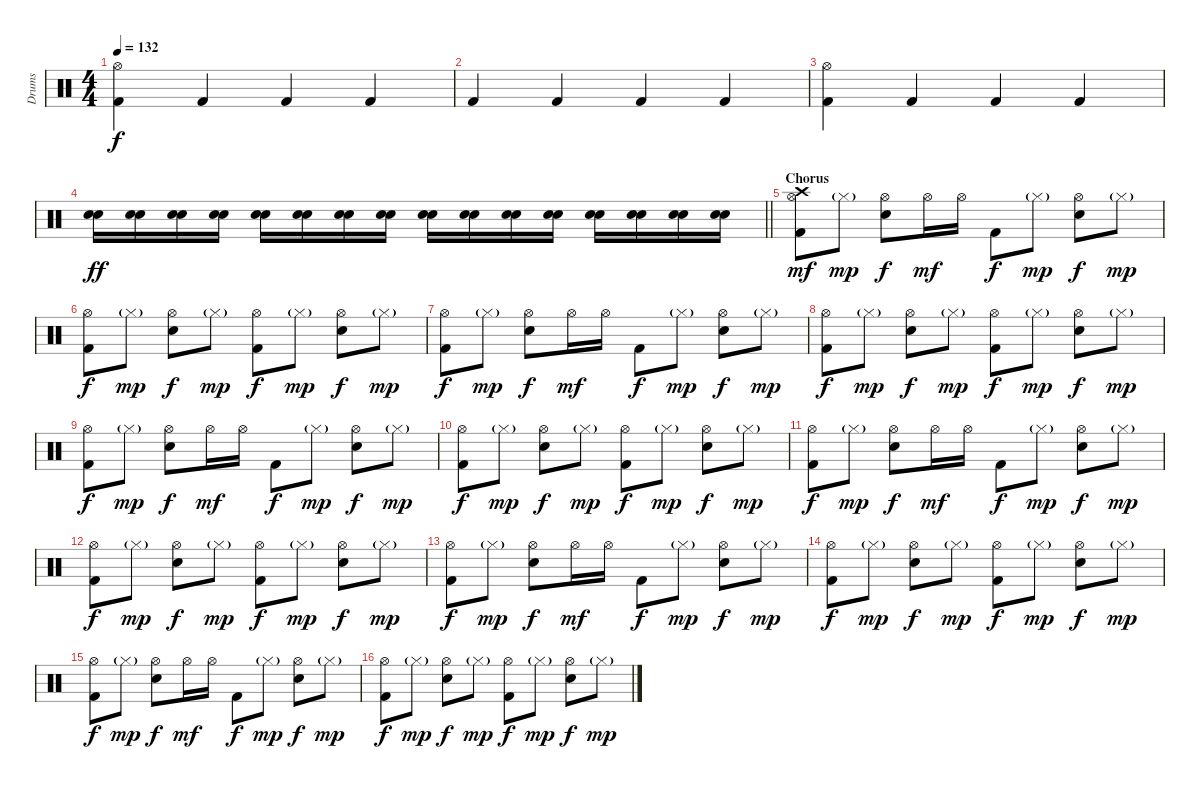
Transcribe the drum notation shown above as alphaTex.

\track ("Drums" "Drums") {instrument percussion}
\staff {score}
\articulation defaults
\ts (4 4)
\tempo 132
\clef neutral
\ks c
("Hi-Hat (open)" "Kick (hit) 2").4{dy f} "Kick (hit) 2".4 "Kick (hit) 2".4 "Kick (hit) 2".4 |
"Kick (hit) 2".4 "Kick (hit) 2".4 "Kick (hit) 2".4 "Kick (hit) 2".4 |
("Hi-Hat (open)" "Kick (hit) 2").4 "Kick (hit) 2".4 "Kick (hit) 2".4 "Kick (hit) 2".4 |
\barLineRight lightlight
("Electric Snare (hit)" "Snare (hit) 2").16{dy ff} ("Electric Snare (hit)" "Snare (hit) 2").16 ("Electric Snare (hit)" "Snare (hit) 2").16 ("Electric Snare (hit)" "Snare (hit) 2").16 ("Electric Snare (hit)" "Snare (hit) 2").16 ("Electric Snare (hit)" "Snare (hit) 2").16 ("Electric Snare (hit)" "Snare (hit) 2").16 ("Electric Snare (hit)" "Snare (hit) 2").16 ("Electric Snare (hit)" "Snare (hit) 2").16 ("Electric Snare (hit)" "Snare (hit) 2").16 ("Electric Snare (hit)" "Snare (hit) 2").16 ("Electric Snare (hit)" "Snare (hit) 2").16 ("Electric Snare (hit)" "Snare (hit) 2").16 ("Electric Snare (hit)" "Snare (hit) 2").16 ("Electric Snare (hit)" "Snare (hit) 2").16 ("Electric Snare (hit)" "Snare (hit) 2").16 |
\section ("" "Chorus ")
("Hi-Hat (open)" "Crash high (hit)" "Kick (hit) 2").8{dy mf} "Hi-Hat (closed)"{g}.8{dy mp} ("Hi-Hat (open)" "Snare (hit) 2").8{dy f} "Hi-Hat (open)".16{dy mf} "Hi-Hat (open)".16 "Kick (hit) 2".8{dy f} "Hi-Hat (closed)"{g}.8{dy mp} ("Hi-Hat (open)" "Snare (hit) 2").8{dy f} "Hi-Hat (closed)"{g}.8{dy mp} |
("Hi-Hat (open)" "Kick (hit) 2").8{dy f} "Hi-Hat (closed)"{g}.8{dy mp} ("Hi-Hat (open)" "Snare (hit) 2").8{dy f} "Hi-Hat (closed)"{g}.8{dy mp} ("Hi-Hat (open)" "Kick (hit) 2").8{dy f} "Hi-Hat (closed)"{g}.8{dy mp} ("Hi-Hat (open)" "Snare (hit) 2").8{dy f} "Hi-Hat (closed)"{g}.8{dy mp} |
("Hi-Hat (open)" "Kick (hit) 2").8{dy f} "Hi-Hat (closed)"{g}.8{dy mp} ("Hi-Hat (open)" "Snare (hit) 2").8{dy f} "Hi-Hat (open)".16{dy mf} "Hi-Hat (open)".16 "Kick (hit) 2".8{dy f} "Hi-Hat (closed)"{g}.8{dy mp} ("Hi-Hat (open)" "Snare (hit) 2").8{dy f} "Hi-Hat (closed)"{g}.8{dy mp} |
("Hi-Hat (open)" "Kick (hit) 2").8{dy f} "Hi-Hat (closed)"{g}.8{dy mp} ("Hi-Hat (open)" "Snare (hit) 2").8{dy f} "Hi-Hat (closed)"{g}.8{dy mp} ("Hi-Hat (open)" "Kick (hit) 2").8{dy f} "Hi-Hat (closed)"{g}.8{dy mp} ("Hi-Hat (open)" "Snare (hit) 2").8{dy f} "Hi-Hat (closed)"{g}.8{dy mp} |
("Hi-Hat (open)" "Kick (hit) 2").8{dy f} "Hi-Hat (closed)"{g}.8{dy mp} ("Hi-Hat (open)" "Snare (hit) 2").8{dy f} "Hi-Hat (open)".16{dy mf} "Hi-Hat (open)".16 "Kick (hit) 2".8{dy f} "Hi-Hat (closed)"{g}.8{dy mp} ("Hi-Hat (open)" "Snare (hit) 2").8{dy f} "Hi-Hat (closed)"{g}.8{dy mp} |
("Hi-Hat (open)" "Kick (hit) 2").8{dy f} "Hi-Hat (closed)"{g}.8{dy mp} ("Hi-Hat (open)" "Snare (hit) 2").8{dy f} "Hi-Hat (closed)"{g}.8{dy mp} ("Hi-Hat (open)" "Kick (hit) 2").8{dy f} "Hi-Hat (closed)"{g}.8{dy mp} ("Hi-Hat (open)" "Snare (hit) 2").8{dy f} "Hi-Hat (closed)"{g}.8{dy mp} |
("Hi-Hat (open)" "Kick (hit) 2").8{dy f} "Hi-Hat (closed)"{g}.8{dy mp} ("Hi-Hat (open)" "Snare (hit) 2").8{dy f} "Hi-Hat (open)".16{dy mf} "Hi-Hat (open)".16 "Kick (hit) 2".8{dy f} "Hi-Hat (closed)"{g}.8{dy mp} ("Hi-Hat (open)" "Snare (hit) 2").8{dy f} "Hi-Hat (closed)"{g}.8{dy mp} |
("Hi-Hat (open)" "Kick (hit) 2").8{dy f} "Hi-Hat (closed)"{g}.8{dy mp} ("Hi-Hat (open)" "Snare (hit) 2").8{dy f} "Hi-Hat (closed)"{g}.8{dy mp} ("Hi-Hat (open)" "Kick (hit) 2").8{dy f} "Hi-Hat (closed)"{g}.8{dy mp} ("Hi-Hat (open)" "Snare (hit) 2").8{dy f} "Hi-Hat (closed)"{g}.8{dy mp} |
("Hi-Hat (open)" "Kick (hit) 2").8{dy f} "Hi-Hat (closed)"{g}.8{dy mp} ("Hi-Hat (open)" "Snare (hit) 2").8{dy f} "Hi-Hat (open)".16{dy mf} "Hi-Hat (open)".16 "Kick (hit) 2".8{dy f} "Hi-Hat (closed)"{g}.8{dy mp} ("Hi-Hat (open)" "Snare (hit) 2").8{dy f} "Hi-Hat (closed)"{g}.8{dy mp} |
("Hi-Hat (open)" "Kick (hit) 2").8{dy f} "Hi-Hat (closed)"{g}.8{dy mp} ("Hi-Hat (open)" "Snare (hit) 2").8{dy f} "Hi-Hat (closed)"{g}.8{dy mp} ("Hi-Hat (open)" "Kick (hit) 2").8{dy f} "Hi-Hat (closed)"{g}.8{dy mp} ("Hi-Hat (open)" "Snare (hit) 2").8{dy f} "Hi-Hat (closed)"{g}.8{dy mp} |
("Hi-Hat (open)" "Kick (hit) 2").8{dy f} "Hi-Hat (closed)"{g}.8{dy mp} ("Hi-Hat (open)" "Snare (hit) 2").8{dy f} "Hi-Hat (open)".16{dy mf} "Hi-Hat (open)".16 "Kick (hit) 2".8{dy f} "Hi-Hat (closed)"{g}.8{dy mp} ("Hi-Hat (open)" "Snare (hit) 2").8{dy f} "Hi-Hat (closed)"{g}.8{dy mp} |
("Hi-Hat (open)" "Kick (hit) 2").8{dy f} "Hi-Hat (closed)"{g}.8{dy mp} ("Hi-Hat (open)" "Snare (hit) 2").8{dy f} "Hi-Hat (closed)"{g}.8{dy mp} ("Hi-Hat (open)" "Kick (hit) 2").8{dy f} "Hi-Hat (closed)"{g}.8{dy mp} ("Hi-Hat (open)" "Snare (hit) 2").8{dy f} "Hi-Hat (closed)"{g}.8{dy mp}
